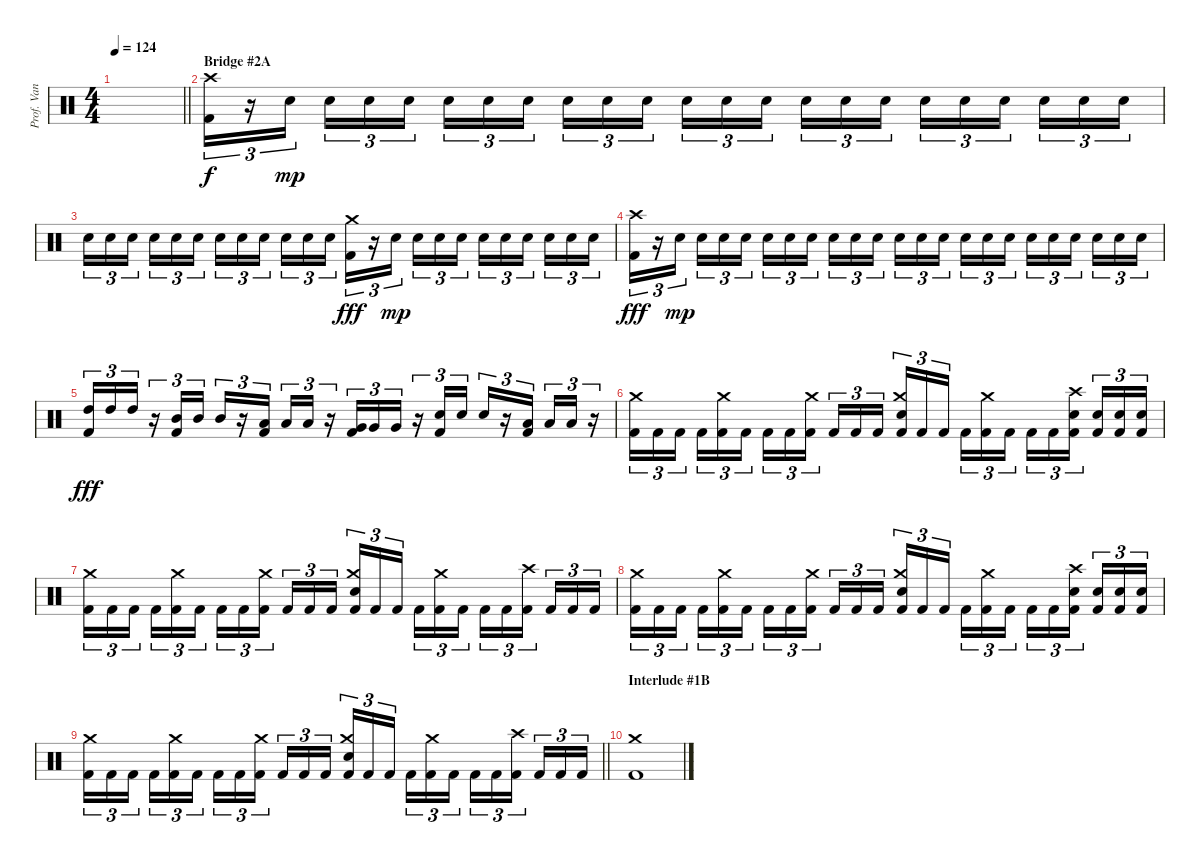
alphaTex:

\track ("Prof. Van Helsing (Drums)" "Prof. Van ") {instrument percussion}
\staff {score}
\articulation defaults
\ts (4 4)
\tempo 124
\clef neutral
\barLineRight lightlight
\ks c
|
\section ("" "Bridge #2A")
("Crash high (hit)" "Kick (hit) 2").16{tu (3 2)} r.16{tu (3 2)} "Electric Snare (hit)".16{tu (3 2) dy mp beam splitsecondary} "Electric Snare (hit)".16{tu (3 2)} "Electric Snare (hit)".16{tu (3 2)} "Electric Snare (hit)".16{tu (3 2)} "Electric Snare (hit)".16{tu (3 2)} "Electric Snare (hit)".16{tu (3 2)} "Electric Snare (hit)".16{tu (3 2) beam splitsecondary} "Electric Snare (hit)".16{tu (3 2)} "Electric Snare (hit)".16{tu (3 2)} "Electric Snare (hit)".16{tu (3 2)} "Electric Snare (hit)".16{tu (3 2)} "Electric Snare (hit)".16{tu (3 2)} "Electric Snare (hit)".16{tu (3 2) beam splitsecondary} "Electric Snare (hit)".16{tu (3 2)} "Electric Snare (hit)".16{tu (3 2)} "Electric Snare (hit)".16{tu (3 2)} "Electric Snare (hit)".16{tu (3 2)} "Electric Snare (hit)".16{tu (3 2)} "Electric Snare (hit)".16{tu (3 2) beam splitsecondary} "Electric Snare (hit)".16{tu (3 2)} "Electric Snare (hit)".16{tu (3 2)} "Electric Snare (hit)".16{tu (3 2)} |
"Electric Snare (hit)".16{tu (3 2)} "Electric Snare (hit)".16{tu (3 2)} "Electric Snare (hit)".16{tu (3 2) beam splitsecondary} "Electric Snare (hit)".16{tu (3 2)} "Electric Snare (hit)".16{tu (3 2)} "Electric Snare (hit)".16{tu (3 2)} "Electric Snare (hit)".16{tu (3 2)} "Electric Snare (hit)".16{tu (3 2)} "Electric Snare (hit)".16{tu (3 2) beam splitsecondary} "Electric Snare (hit)".16{tu (3 2)} "Electric Snare (hit)".16{tu (3 2)} "Electric Snare (hit)".16{tu (3 2)} ("Crash medium (hit)" "Kick (hit) 2").16{tu (3 2) dy fff} r.16{tu (3 2)} "Electric Snare (hit)".16{tu (3 2) dy mp beam splitsecondary} "Electric Snare (hit)".16{tu (3 2)} "Electric Snare (hit)".16{tu (3 2)} "Electric Snare (hit)".16{tu (3 2)} "Electric Snare (hit)".16{tu (3 2)} "Electric Snare (hit)".16{tu (3 2)} "Electric Snare (hit)".16{tu (3 2) beam splitsecondary} "Electric Snare (hit)".16{tu (3 2)} "Electric Snare (hit)".16{tu (3 2)} "Electric Snare (hit)".16{tu (3 2)} |
("Crash high (hit)" "Kick (hit) 2").16{tu (3 2) dy fff} r.16{tu (3 2)} "Electric Snare (hit)".16{tu (3 2) dy mp beam splitsecondary} "Electric Snare (hit)".16{tu (3 2)} "Electric Snare (hit)".16{tu (3 2)} "Electric Snare (hit)".16{tu (3 2)} "Electric Snare (hit)".16{tu (3 2)} "Electric Snare (hit)".16{tu (3 2)} "Electric Snare (hit)".16{tu (3 2) beam splitsecondary} "Electric Snare (hit)".16{tu (3 2)} "Electric Snare (hit)".16{tu (3 2)} "Electric Snare (hit)".16{tu (3 2)} "Electric Snare (hit)".16{tu (3 2)} "Electric Snare (hit)".16{tu (3 2)} "Electric Snare (hit)".16{tu (3 2) beam splitsecondary} "Electric Snare (hit)".16{tu (3 2)} "Electric Snare (hit)".16{tu (3 2)} "Electric Snare (hit)".16{tu (3 2)} "Electric Snare (hit)".16{tu (3 2)} "Electric Snare (hit)".16{tu (3 2)} "Electric Snare (hit)".16{tu (3 2) beam splitsecondary} "Electric Snare (hit)".16{tu (3 2)} "Electric Snare (hit)".16{tu (3 2)} "Electric Snare (hit)".16{tu (3 2)} |
("High Tom (hit)" "Kick (hit) 2").16{tu (3 2) dy fff} "High Tom (hit)".16{tu (3 2)} "High Tom (hit)".16{tu (3 2)} r.16{tu (3 2)} ("Mid Tom (hit)" "Kick (hit) 2").16{tu (3 2)} "Mid Tom (hit)".16{tu (3 2)} "Mid Tom (hit)".16{tu (3 2)} r.16{tu (3 2)} ("Low Tom (hit)" "Kick (hit) 2").16{tu (3 2) beam splitsecondary} "Low Tom (hit)".16{tu (3 2)} "Low Tom (hit)".16{tu (3 2)} r.16{tu (3 2)} ("Very Low Tom (hit)" "Kick (hit) 2").16{tu (3 2)} "Very Low Tom (hit)".16{tu (3 2)} "Very Low Tom (hit)".16{tu (3 2)} r.16{tu (3 2)} ("Snare (hit) 2" "Kick (hit) 2").16{tu (3 2)} "Snare (hit) 2".16{tu (3 2)} "Snare (hit) 2".16{tu (3 2)} r.16{tu (3 2)} ("Low Floor Tom (hit)" "Kick (hit) 2").16{tu (3 2) beam splitsecondary} "Low Floor Tom (hit)".16{tu (3 2)} "Low Floor Tom (hit)".16{tu (3 2)} r.16{tu (3 2)} |
("Crash medium (hit)" "Kick (hit) 2").16{tu (3 2)} "Kick (hit) 2".16{tu (3 2)} "Kick (hit) 2".16{tu (3 2) beam splitsecondary} "Kick (hit) 2".16{tu (3 2)} ("Crash medium (hit)" "Kick (hit) 2").16{tu (3 2)} "Kick (hit) 2".16{tu (3 2)} "Kick (hit) 2".16{tu (3 2)} "Kick (hit) 2".16{tu (3 2)} ("Crash medium (hit)" "Kick (hit) 2").16{tu (3 2) beam splitsecondary} "Kick (hit) 2".16{tu (3 2)} "Kick (hit) 2".16{tu (3 2)} "Kick (hit) 2".16{tu (3 2)} ("Crash medium (hit)" "Snare (hit) 2" "Kick (hit) 2").16{tu (3 2)} "Kick (hit) 2".16{tu (3 2)} "Kick (hit) 2".16{tu (3 2) beam splitsecondary} "Kick (hit) 2".16{tu (3 2)} ("Crash medium (hit)" "Kick (hit) 2").16{tu (3 2)} "Kick (hit) 2".16{tu (3 2)} "Kick (hit) 2".16{tu (3 2)} "Kick (hit) 2".16{tu (3 2)} ("Crash high (hit)" "Snare (hit) 2" "Kick (hit) 2").16{tu (3 2) beam splitsecondary} ("Snare (hit) 2" "Kick (hit) 2").16{tu (3 2)} ("Snare (hit) 2" "Kick (hit) 2").16{tu (3 2)} ("Snare (hit) 2" "Kick (hit) 2").16{tu (3 2)} |
("Crash medium (hit)" "Kick (hit) 2").16{tu (3 2)} "Kick (hit) 2".16{tu (3 2)} "Kick (hit) 2".16{tu (3 2) beam splitsecondary} "Kick (hit) 2".16{tu (3 2)} ("Crash medium (hit)" "Kick (hit) 2").16{tu (3 2)} "Kick (hit) 2".16{tu (3 2)} "Kick (hit) 2".16{tu (3 2)} "Kick (hit) 2".16{tu (3 2)} ("Crash medium (hit)" "Kick (hit) 2").16{tu (3 2) beam splitsecondary} "Kick (hit) 2".16{tu (3 2)} "Kick (hit) 2".16{tu (3 2)} "Kick (hit) 2".16{tu (3 2)} ("Crash medium (hit)" "Snare (hit) 2" "Kick (hit) 2").16{tu (3 2)} "Kick (hit) 2".16{tu (3 2)} "Kick (hit) 2".16{tu (3 2) beam splitsecondary} "Kick (hit) 2".16{tu (3 2)} ("Crash medium (hit)" "Kick (hit) 2").16{tu (3 2)} "Kick (hit) 2".16{tu (3 2)} "Kick (hit) 2".16{tu (3 2)} "Kick (hit) 2".16{tu (3 2)} ("Crash high (hit)" "Kick (hit) 2").16{tu (3 2) beam splitsecondary} "Kick (hit) 2".16{tu (3 2)} "Kick (hit) 2".16{tu (3 2)} "Kick (hit) 2".16{tu (3 2)} |
("Crash medium (hit)" "Kick (hit) 2").16{tu (3 2)} "Kick (hit) 2".16{tu (3 2)} "Kick (hit) 2".16{tu (3 2) beam splitsecondary} "Kick (hit) 2".16{tu (3 2)} ("Crash medium (hit)" "Kick (hit) 2").16{tu (3 2)} "Kick (hit) 2".16{tu (3 2)} "Kick (hit) 2".16{tu (3 2)} "Kick (hit) 2".16{tu (3 2)} ("Crash medium (hit)" "Kick (hit) 2").16{tu (3 2) beam splitsecondary} "Kick (hit) 2".16{tu (3 2)} "Kick (hit) 2".16{tu (3 2)} "Kick (hit) 2".16{tu (3 2)} ("Crash medium (hit)" "Snare (hit) 2" "Kick (hit) 2").16{tu (3 2)} "Kick (hit) 2".16{tu (3 2)} "Kick (hit) 2".16{tu (3 2) beam splitsecondary} "Kick (hit) 2".16{tu (3 2)} ("Crash medium (hit)" "Kick (hit) 2").16{tu (3 2)} "Kick (hit) 2".16{tu (3 2)} "Kick (hit) 2".16{tu (3 2)} "Kick (hit) 2".16{tu (3 2)} ("Crash high (hit)" "Snare (hit) 2" "Kick (hit) 2").16{tu (3 2) beam splitsecondary} ("Snare (hit) 2" "Kick (hit) 2").16{tu (3 2)} ("Snare (hit) 2" "Kick (hit) 2").16{tu (3 2)} ("Snare (hit) 2" "Kick (hit) 2").16{tu (3 2)} |
\barLineRight lightlight
("Crash medium (hit)" "Kick (hit) 2").16{tu (3 2)} "Kick (hit) 2".16{tu (3 2)} "Kick (hit) 2".16{tu (3 2) beam splitsecondary} "Kick (hit) 2".16{tu (3 2)} ("Crash medium (hit)" "Kick (hit) 2").16{tu (3 2)} "Kick (hit) 2".16{tu (3 2)} "Kick (hit) 2".16{tu (3 2)} "Kick (hit) 2".16{tu (3 2)} ("Crash medium (hit)" "Kick (hit) 2").16{tu (3 2) beam splitsecondary} "Kick (hit) 2".16{tu (3 2)} "Kick (hit) 2".16{tu (3 2)} "Kick (hit) 2".16{tu (3 2)} ("Crash medium (hit)" "Snare (hit) 2" "Kick (hit) 2").16{tu (3 2)} "Kick (hit) 2".16{tu (3 2)} "Kick (hit) 2".16{tu (3 2) beam splitsecondary} "Kick (hit) 2".16{tu (3 2)} ("Crash medium (hit)" "Kick (hit) 2").16{tu (3 2)} "Kick (hit) 2".16{tu (3 2)} "Kick (hit) 2".16{tu (3 2)} "Kick (hit) 2".16{tu (3 2)} ("Crash high (hit)" "Kick (hit) 2").16{tu (3 2) beam splitsecondary} "Kick (hit) 2".16{tu (3 2)} "Kick (hit) 2".16{tu (3 2)} "Kick (hit) 2".16{tu (3 2)} |
\section ("" "Interlude #1B")
("Crash medium (hit)" "Kick (hit) 2").1
